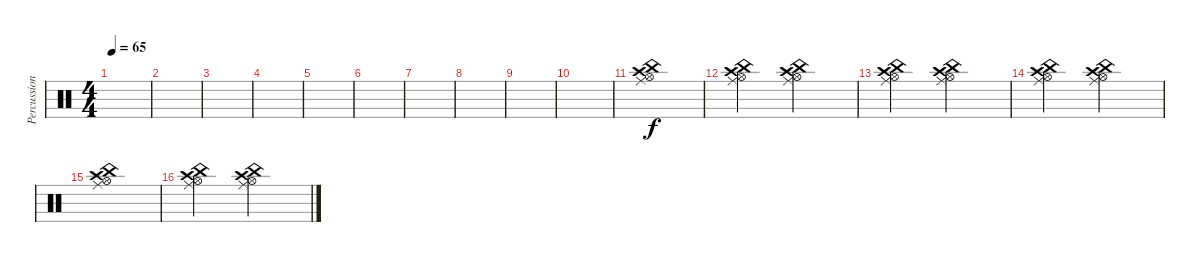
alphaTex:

\track ("Percussion" "Percussion") {instrument percussion}
\staff {score}
\articulation defaults
\ts (4 4)
\tempo 65
\clef neutral
\ks c
|
|
|
|
|
|
|
|
|
|
("China (hit)" "Crash high (hit)" "Ride (middle)" "Hi-Hat (open)").1 |
("China (hit)" "Crash high (hit)" "Ride (middle)" "Hi-Hat (open)").2 ("China (hit)" "Crash high (hit)" "Ride (middle)" "Hi-Hat (open)").2 |
("China (hit)" "Crash high (hit)" "Ride (middle)" "Hi-Hat (open)").2 ("China (hit)" "Crash high (hit)" "Ride (middle)" "Hi-Hat (open)").2 |
("China (hit)" "Crash high (hit)" "Ride (middle)" "Hi-Hat (open)").2 ("China (hit)" "Crash high (hit)" "Ride (middle)" "Hi-Hat (open)").2 |
("China (hit)" "Crash high (hit)" "Ride (middle)" "Hi-Hat (open)").1 |
("China (hit)" "Crash high (hit)" "Ride (middle)" "Hi-Hat (open)").2 ("China (hit)" "Crash high (hit)" "Ride (middle)" "Hi-Hat (open)").2
